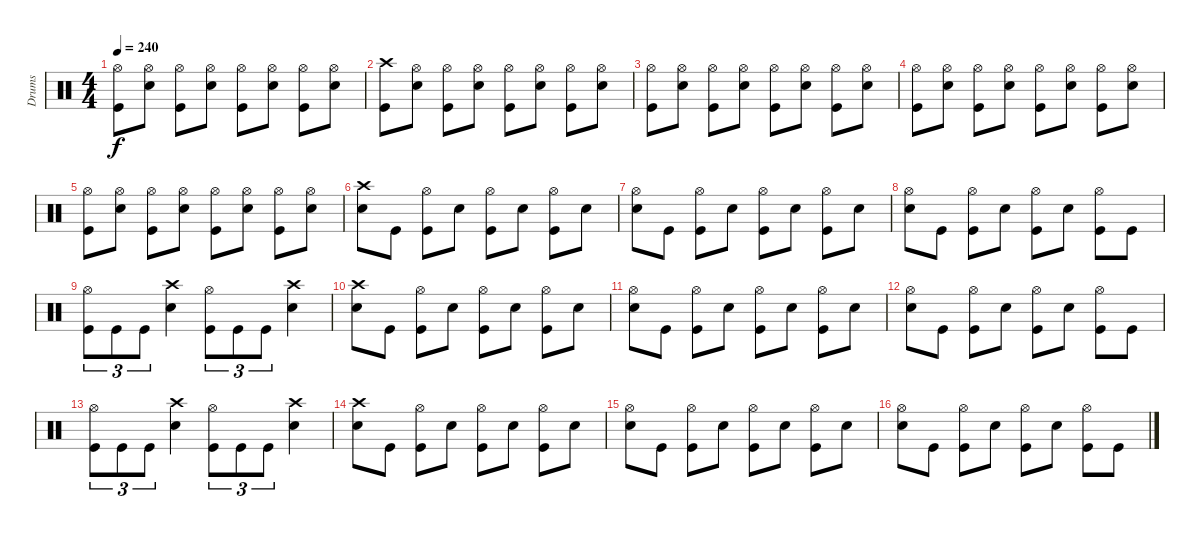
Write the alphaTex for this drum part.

\track ("Drums" "Drums") {instrument percussion}
\staff {score}
\articulation defaults
\ts (4 4)
\tempo 240
\clef neutral
\ks c
("Hi-Hat (open)" "Kick (hit)").8{dy f} ("Hi-Hat (open)" "Snare (hit) 2").8 ("Hi-Hat (open)" "Kick (hit)").8 ("Hi-Hat (open)" "Snare (hit) 2").8 ("Hi-Hat (open)" "Kick (hit)").8 ("Hi-Hat (open)" "Snare (hit) 2").8 ("Hi-Hat (open)" "Kick (hit)").8 ("Hi-Hat (open)" "Snare (hit) 2").8 |
("Crash high (hit)" "Kick (hit)").8 ("Hi-Hat (open)" "Snare (hit) 2").8 ("Hi-Hat (open)" "Kick (hit)").8 ("Hi-Hat (open)" "Snare (hit) 2").8 ("Hi-Hat (open)" "Kick (hit)").8 ("Hi-Hat (open)" "Snare (hit) 2").8 ("Hi-Hat (open)" "Kick (hit)").8 ("Hi-Hat (open)" "Snare (hit) 2").8 |
("Hi-Hat (open)" "Kick (hit)").8 ("Hi-Hat (open)" "Snare (hit) 2").8 ("Hi-Hat (open)" "Kick (hit)").8 ("Hi-Hat (open)" "Snare (hit) 2").8 ("Hi-Hat (open)" "Kick (hit)").8 ("Hi-Hat (open)" "Snare (hit) 2").8 ("Hi-Hat (open)" "Kick (hit)").8 ("Hi-Hat (open)" "Snare (hit) 2").8 |
("Hi-Hat (open)" "Kick (hit)").8 ("Hi-Hat (open)" "Snare (hit) 2").8 ("Hi-Hat (open)" "Kick (hit)").8 ("Hi-Hat (open)" "Snare (hit) 2").8 ("Hi-Hat (open)" "Kick (hit)").8 ("Hi-Hat (open)" "Snare (hit) 2").8 ("Hi-Hat (open)" "Kick (hit)").8 ("Hi-Hat (open)" "Snare (hit) 2").8 |
("Hi-Hat (open)" "Kick (hit)").8 ("Hi-Hat (open)" "Snare (hit) 2").8 ("Hi-Hat (open)" "Kick (hit)").8 ("Hi-Hat (open)" "Snare (hit) 2").8 ("Hi-Hat (open)" "Kick (hit)").8 ("Hi-Hat (open)" "Snare (hit) 2").8 ("Hi-Hat (open)" "Kick (hit)").8 ("Hi-Hat (open)" "Snare (hit) 2").8 |
("Crash high (hit)" "Snare (hit) 2").8 "Kick (hit)".8 ("Hi-Hat (open)" "Kick (hit)").8 "Snare (hit) 2".8 ("Hi-Hat (open)" "Kick (hit)").8 "Snare (hit) 2".8 ("Hi-Hat (open)" "Kick (hit)").8 "Snare (hit) 2".8 |
("Hi-Hat (open)" "Snare (hit) 2").8 "Kick (hit)".8 ("Hi-Hat (open)" "Kick (hit)").8 "Snare (hit) 2".8 ("Hi-Hat (open)" "Kick (hit)").8 "Snare (hit) 2".8 ("Hi-Hat (open)" "Kick (hit)").8 "Snare (hit) 2".8 |
("Hi-Hat (open)" "Snare (hit) 2").8 "Kick (hit)".8 ("Hi-Hat (open)" "Kick (hit)").8 "Snare (hit) 2".8 ("Hi-Hat (open)" "Kick (hit)").8 "Snare (hit) 2".8 ("Hi-Hat (open)" "Kick (hit)").8 "Kick (hit)".8 |
("Hi-Hat (open)" "Kick (hit)").8{tu (3 2)} "Kick (hit)".8{tu (3 2)} "Kick (hit)".8{tu (3 2)} ("Crash high (hit)" "Snare (hit) 2").4 ("Hi-Hat (open)" "Kick (hit)").8{tu (3 2)} "Kick (hit)".8{tu (3 2)} "Kick (hit)".8{tu (3 2)} ("Crash high (hit)" "Snare (hit) 2").4 |
("Crash high (hit)" "Snare (hit) 2").8 "Kick (hit)".8 ("Hi-Hat (open)" "Kick (hit)").8 "Snare (hit) 2".8 ("Hi-Hat (open)" "Kick (hit)").8 "Snare (hit) 2".8 ("Hi-Hat (open)" "Kick (hit)").8 "Snare (hit) 2".8 |
("Hi-Hat (open)" "Snare (hit) 2").8 "Kick (hit)".8 ("Hi-Hat (open)" "Kick (hit)").8 "Snare (hit) 2".8 ("Hi-Hat (open)" "Kick (hit)").8 "Snare (hit) 2".8 ("Hi-Hat (open)" "Kick (hit)").8 "Snare (hit) 2".8 |
("Hi-Hat (open)" "Snare (hit) 2").8 "Kick (hit)".8 ("Hi-Hat (open)" "Kick (hit)").8 "Snare (hit) 2".8 ("Hi-Hat (open)" "Kick (hit)").8 "Snare (hit) 2".8 ("Hi-Hat (open)" "Kick (hit)").8 "Kick (hit)".8 |
("Hi-Hat (open)" "Kick (hit)").8{tu (3 2)} "Kick (hit)".8{tu (3 2)} "Kick (hit)".8{tu (3 2)} ("Crash high (hit)" "Snare (hit) 2").4 ("Hi-Hat (open)" "Kick (hit)").8{tu (3 2)} "Kick (hit)".8{tu (3 2)} "Kick (hit)".8{tu (3 2)} ("Crash high (hit)" "Snare (hit) 2").4 |
("Crash high (hit)" "Snare (hit) 2").8 "Kick (hit)".8 ("Hi-Hat (open)" "Kick (hit)").8 "Snare (hit) 2".8 ("Hi-Hat (open)" "Kick (hit)").8 "Snare (hit) 2".8 ("Hi-Hat (open)" "Kick (hit)").8 "Snare (hit) 2".8 |
("Hi-Hat (open)" "Snare (hit) 2").8 "Kick (hit)".8 ("Hi-Hat (open)" "Kick (hit)").8 "Snare (hit) 2".8 ("Hi-Hat (open)" "Kick (hit)").8 "Snare (hit) 2".8 ("Hi-Hat (open)" "Kick (hit)").8 "Snare (hit) 2".8 |
("Hi-Hat (open)" "Snare (hit) 2").8 "Kick (hit)".8 ("Hi-Hat (open)" "Kick (hit)").8 "Snare (hit) 2".8 ("Hi-Hat (open)" "Kick (hit)").8 "Snare (hit) 2".8 ("Hi-Hat (open)" "Kick (hit)").8 "Kick (hit)".8
